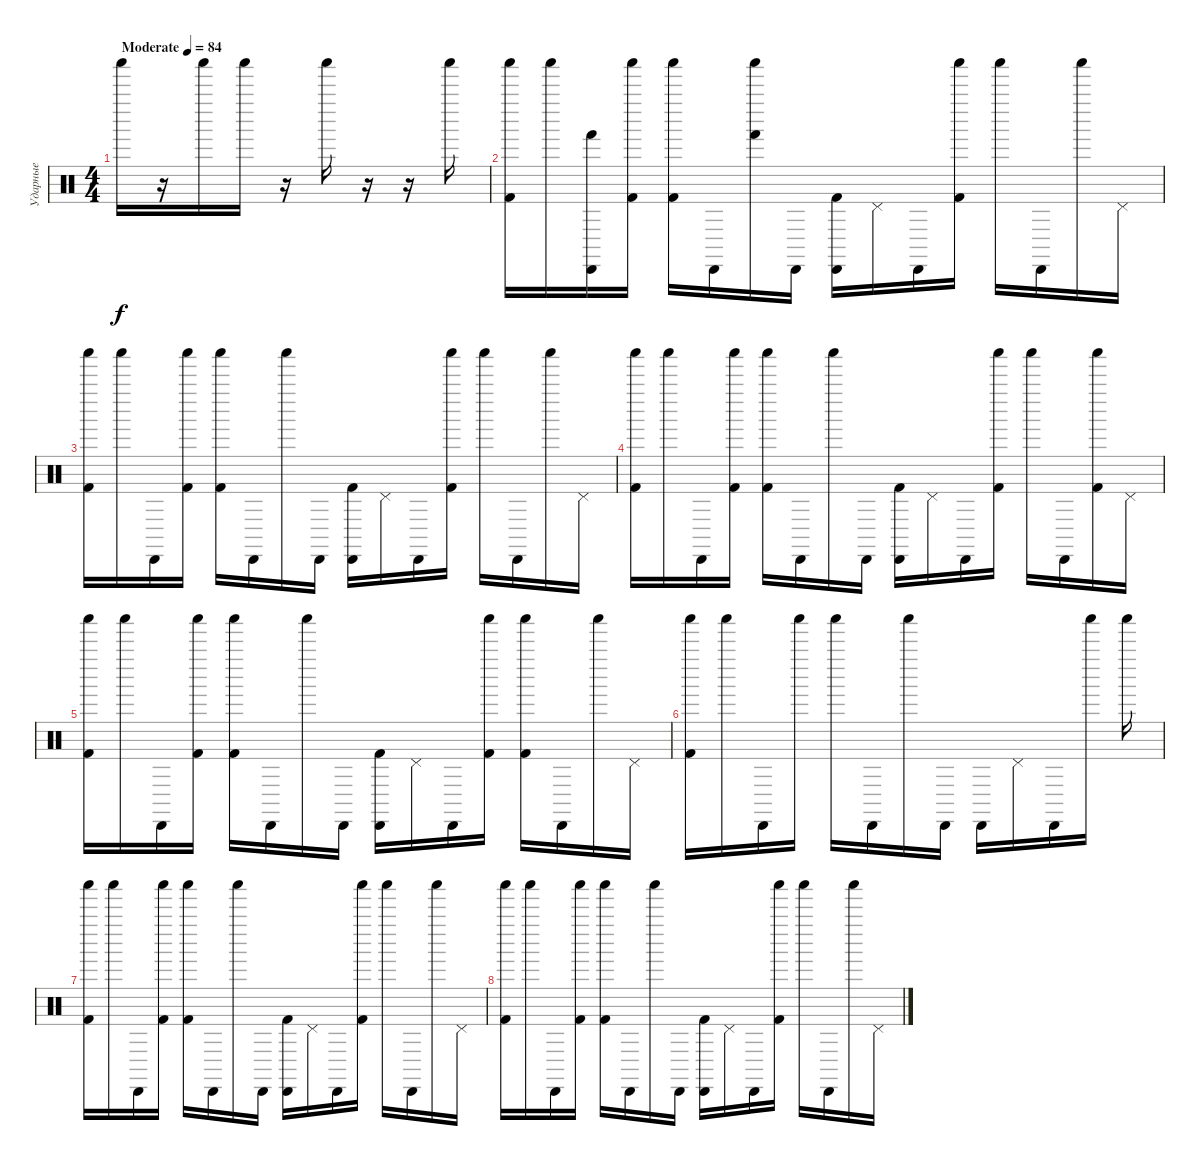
\track ("Ударные" "Ударные") {instrument percussion}
\staff {score}
\articulation defaults
\ts (4 4)
\tempo (84 "Moderate")
\clef neutral
\ks c "Shaker (hit)".16{dy f}
r.16 "Shaker (hit)".16 "Shaker (hit)".16 r.16 "Shaker (hit)".16 r.16 r.16 "Shaker (hit)".16 |
("Shaker (hit)" "Kick (hit) 2").16 "Shaker (hit)".16 ("Hand (hit)" "Cabasa (hit)").16 ("Shaker (hit)" "Kick (hit) 2").16 ("Shaker (hit)" "Kick (hit) 2").16 "Cabasa (hit)".16 ("Shaker (hit)" "Hand (hit)").16 "Cabasa (hit)".16 ("Cabasa (hit)" "Kick (hit) 2").16 "Pedal Hi-Hat (hit)".16 "Cabasa (hit)".16 ("Shaker (hit)" "Kick (hit) 2").16 "Shaker (hit)".16 "Cabasa (hit)".16 "Shaker (hit)".16 "Pedal Hi-Hat (hit)".16 |
("Shaker (hit)" "Kick (hit) 2").16 "Shaker (hit)".16 "Cabasa (hit)".16 ("Shaker (hit)" "Kick (hit) 2").16 ("Shaker (hit)" "Kick (hit) 2").16 "Cabasa (hit)".16 "Shaker (hit)".16 "Cabasa (hit)".16 ("Cabasa (hit)" "Kick (hit) 2").16 "Pedal Hi-Hat (hit)".16 "Cabasa (hit)".16 ("Shaker (hit)" "Kick (hit) 2").16 "Shaker (hit)".16 "Cabasa (hit)".16 "Shaker (hit)".16 "Pedal Hi-Hat (hit)".16 |
("Shaker (hit)" "Kick (hit) 2").16 "Shaker (hit)".16 "Cabasa (hit)".16 ("Shaker (hit)" "Kick (hit) 2").16 ("Shaker (hit)" "Kick (hit) 2").16 "Cabasa (hit)".16 "Shaker (hit)".16 "Cabasa (hit)".16 ("Cabasa (hit)" "Kick (hit) 2").16 "Pedal Hi-Hat (hit)".16 "Cabasa (hit)".16 ("Shaker (hit)" "Kick (hit) 2").16 "Shaker (hit)".16 "Cabasa (hit)".16 ("Shaker (hit)" "Kick (hit) 2").16 "Pedal Hi-Hat (hit)".16 |
("Shaker (hit)" "Kick (hit) 2").16 "Shaker (hit)".16 "Cabasa (hit)".16 ("Shaker (hit)" "Kick (hit) 2").16 ("Shaker (hit)" "Kick (hit) 2").16 "Cabasa (hit)".16 "Shaker (hit)".16 "Cabasa (hit)".16 ("Cabasa (hit)" "Kick (hit) 2").16 "Pedal Hi-Hat (hit)".16 "Cabasa (hit)".16 ("Shaker (hit)" "Kick (hit) 2").16 ("Shaker (hit)" "Kick (hit) 2").16 "Cabasa (hit)".16 "Shaker (hit)".16 "Pedal Hi-Hat (hit)".16 |
("Shaker (hit)" "Kick (hit) 2").16 "Shaker (hit)".16 "Cabasa (hit)".16 "Shaker (hit)".16 "Shaker (hit)".16 "Cabasa (hit)".16 "Shaker (hit)".16 "Cabasa (hit)".16 "Cabasa (hit)".16 "Pedal Hi-Hat (hit)".16 "Cabasa (hit)".16 "Shaker (hit)".16 "Shaker (hit)".16 |
("Shaker (hit)" "Kick (hit) 2").16 "Shaker (hit)".16 "Cabasa (hit)".16 ("Shaker (hit)" "Kick (hit) 2").16 ("Shaker (hit)" "Kick (hit) 2").16 "Cabasa (hit)".16 "Shaker (hit)".16 "Cabasa (hit)".16 ("Cabasa (hit)" "Kick (hit) 2").16 "Pedal Hi-Hat (hit)".16 "Cabasa (hit)".16 ("Shaker (hit)" "Kick (hit) 2").16 "Shaker (hit)".16 "Cabasa (hit)".16 "Shaker (hit)".16 "Pedal Hi-Hat (hit)".16 |
("Shaker (hit)" "Kick (hit) 2").16 "Shaker (hit)".16 "Cabasa (hit)".16 ("Shaker (hit)" "Kick (hit) 2").16 ("Shaker (hit)" "Kick (hit) 2").16 "Cabasa (hit)".16 "Shaker (hit)".16 "Cabasa (hit)".16 ("Cabasa (hit)" "Kick (hit) 2").16 "Pedal Hi-Hat (hit)".16 "Cabasa (hit)".16 ("Shaker (hit)" "Kick (hit) 2").16 "Shaker (hit)".16 "Cabasa (hit)".16 "Shaker (hit)".16 "Pedal Hi-Hat (hit)".16
